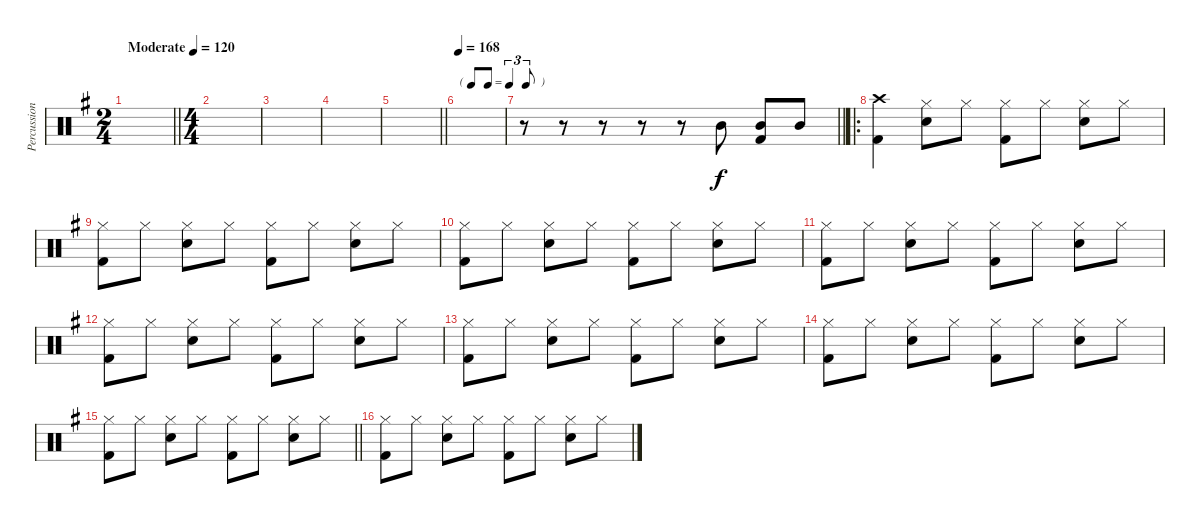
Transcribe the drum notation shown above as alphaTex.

\track ("Percussion" "Percussion") {instrument percussion}
\staff {score}
\articulation defaults
\ts (2 4)
\tempo (120 "Moderate")
\clef neutral
\barLineRight lightlight
\ks g
|
\ts (4 4)
|
|
|
\barLineRight lightlight
|
\tf triplet8th
\tempo 168
|
\barLineRight lightlight
r.8 r.8 r.8 r.8 r.8 "Mid Tom (hit)".8 ("Mid Tom (hit)" "Kick (hit) 2").8 "Mid Tom (hit)".8 |
\ro
("Crash high (hit)" "Kick (hit) 2").4 ("Hi-Hat (closed)" "Snare (hit) 2").8 "Hi-Hat (closed)".8 ("Hi-Hat (closed)" "Kick (hit) 2").8 "Hi-Hat (closed)".8 ("Hi-Hat (closed)" "Snare (hit) 2").8 "Hi-Hat (closed)".8 |
("Hi-Hat (closed)" "Kick (hit) 2").8 "Hi-Hat (closed)".8 ("Hi-Hat (closed)" "Snare (hit) 2").8 "Hi-Hat (closed)".8 ("Hi-Hat (closed)" "Kick (hit) 2").8 "Hi-Hat (closed)".8 ("Hi-Hat (closed)" "Snare (hit) 2").8 "Hi-Hat (closed)".8 |
("Hi-Hat (closed)" "Kick (hit) 2").8 "Hi-Hat (closed)".8 ("Hi-Hat (closed)" "Snare (hit) 2").8 "Hi-Hat (closed)".8 ("Hi-Hat (closed)" "Kick (hit) 2").8 "Hi-Hat (closed)".8 ("Hi-Hat (closed)" "Snare (hit) 2").8 "Hi-Hat (closed)".8 |
("Hi-Hat (closed)" "Kick (hit) 2").8 "Hi-Hat (closed)".8 ("Hi-Hat (closed)" "Snare (hit) 2").8 "Hi-Hat (closed)".8 ("Hi-Hat (closed)" "Kick (hit) 2").8 "Hi-Hat (closed)".8 ("Hi-Hat (closed)" "Snare (hit) 2").8 "Hi-Hat (closed)".8 |
("Hi-Hat (closed)" "Kick (hit) 2").8 "Hi-Hat (closed)".8 ("Hi-Hat (closed)" "Snare (hit) 2").8 "Hi-Hat (closed)".8 ("Hi-Hat (closed)" "Kick (hit) 2").8 "Hi-Hat (closed)".8 ("Hi-Hat (closed)" "Snare (hit) 2").8 "Hi-Hat (closed)".8 |
("Hi-Hat (closed)" "Kick (hit) 2").8 "Hi-Hat (closed)".8 ("Hi-Hat (closed)" "Snare (hit) 2").8 "Hi-Hat (closed)".8 ("Hi-Hat (closed)" "Kick (hit) 2").8 "Hi-Hat (closed)".8 ("Hi-Hat (closed)" "Snare (hit) 2").8 "Hi-Hat (closed)".8 |
("Hi-Hat (closed)" "Kick (hit) 2").8 "Hi-Hat (closed)".8 ("Hi-Hat (closed)" "Snare (hit) 2").8 "Hi-Hat (closed)".8 ("Hi-Hat (closed)" "Kick (hit) 2").8 "Hi-Hat (closed)".8 ("Hi-Hat (closed)" "Snare (hit) 2").8 "Hi-Hat (closed)".8 |
\barLineRight lightlight
("Hi-Hat (closed)" "Kick (hit) 2").8 "Hi-Hat (closed)".8 ("Hi-Hat (closed)" "Snare (hit) 2").8 "Hi-Hat (closed)".8 ("Hi-Hat (closed)" "Kick (hit) 2").8 "Hi-Hat (closed)".8 ("Hi-Hat (closed)" "Snare (hit) 2").8 "Hi-Hat (closed)".8 |
("Hi-Hat (closed)" "Kick (hit) 2").8 "Hi-Hat (closed)".8 ("Hi-Hat (closed)" "Snare (hit) 2").8 "Hi-Hat (closed)".8 ("Hi-Hat (closed)" "Kick (hit) 2").8 "Hi-Hat (closed)".8 ("Hi-Hat (closed)" "Snare (hit) 2").8 "Hi-Hat (closed)".8
